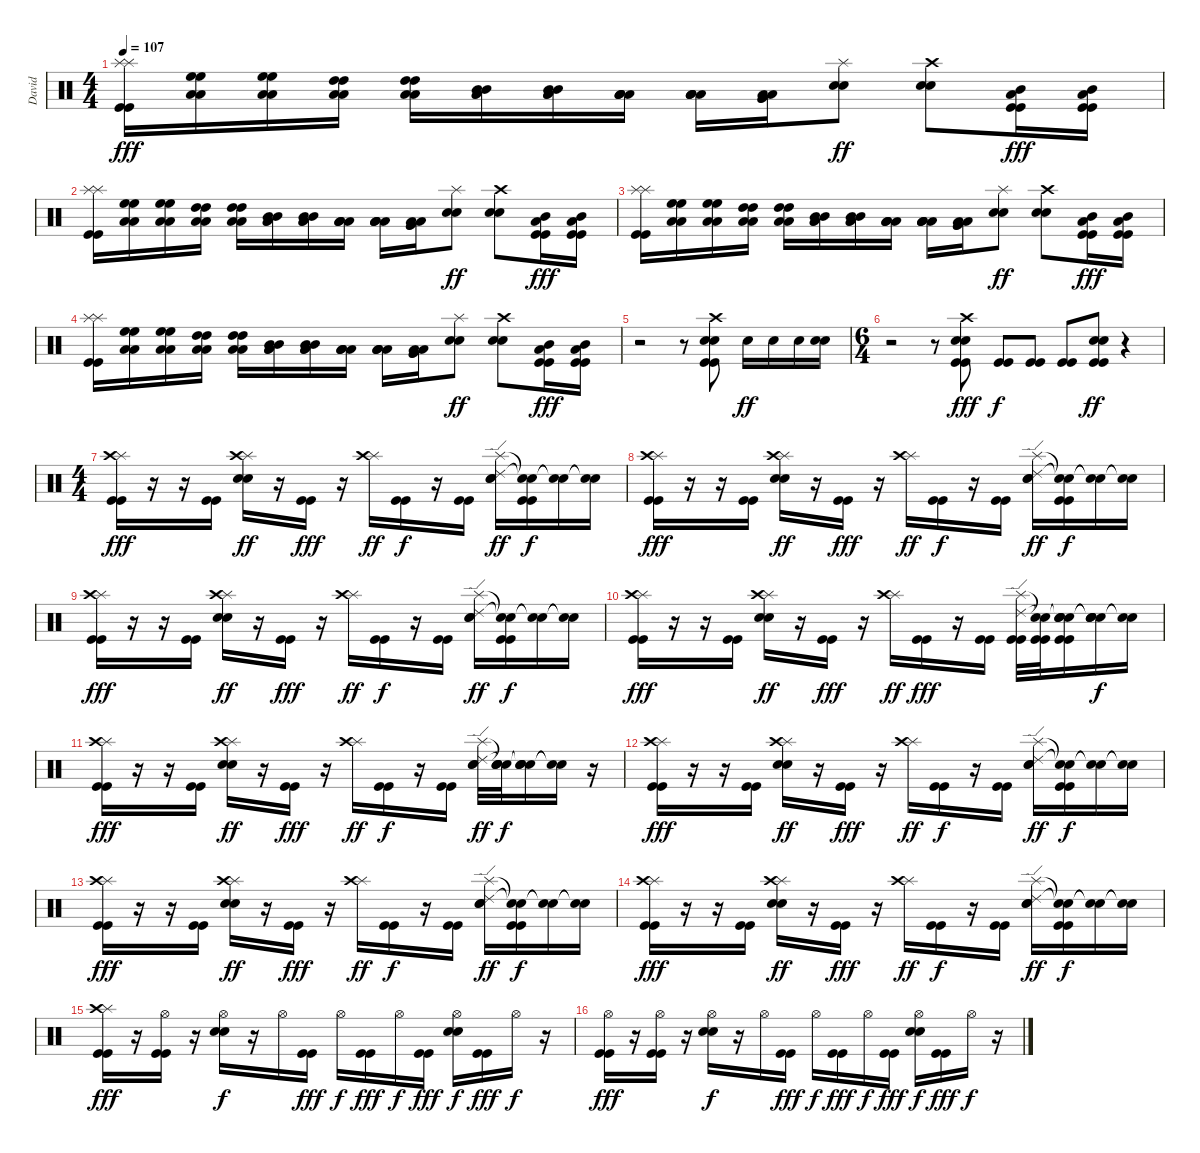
\track ("David" "David") {instrument percussion}
\staff {score}
\articulation defaults
\ts (4 4)
\tempo 107
\clef neutral
\ks c
("Splash (hit)" "Splash (hit)" "Kick (hit)" "Kick (hit)").16{dy fff} ("High Floor Tom (hit)" "High Floor Tom (hit)" "Low Floor Tom (hit)" "Low Floor Tom (hit)").16 ("High Floor Tom (hit)" "High Floor Tom (hit)" "Low Floor Tom (hit)" "Low Floor Tom (hit)").16 ("High Tom (hit)" "High Tom (hit)" "Low Floor Tom (hit)" "Low Floor Tom (hit)").16 ("High Tom (hit)" "High Tom (hit)" "Low Floor Tom (hit)" "Low Floor Tom (hit)").16 ("Mid Tom (hit)" "Mid Tom (hit)" "Low Floor Tom (hit)" "Low Floor Tom (hit)").16 ("Mid Tom (hit)" "Mid Tom (hit)" "Low Floor Tom (hit)" "Low Floor Tom (hit)").16 ("Low Tom (hit)" "Low Tom (hit)" "Low Floor Tom (hit)" "Low Floor Tom (hit)").16 ("Low Tom (hit)" "Low Tom (hit)" "Low Floor Tom (hit)" "Low Floor Tom (hit)").16 ("Very Low Tom (hit)" "Very Low Tom (hit)" "Low Floor Tom (hit)" "Low Floor Tom (hit)").16 ("Splash (hit)" "Electric Snare (hit)" "Electric Snare (hit)").8{dy ff} ("Crash high (hit)" "Electric Snare (hit)" "Electric Snare (hit)").8 ("Mid Tom (hit)" "Low Floor Tom (hit)" "Kick (hit)" "Kick (hit)").16{dy fff} ("Mid Tom (hit)" "Low Floor Tom (hit)" "Kick (hit)" "Kick (hit)").16 |
("Splash (hit)" "Splash (hit)" "Kick (hit)" "Kick (hit)").16 ("High Floor Tom (hit)" "High Floor Tom (hit)" "Low Floor Tom (hit)" "Low Floor Tom (hit)").16 ("High Floor Tom (hit)" "High Floor Tom (hit)" "Low Floor Tom (hit)" "Low Floor Tom (hit)").16 ("High Tom (hit)" "High Tom (hit)" "Low Floor Tom (hit)" "Low Floor Tom (hit)").16 ("High Tom (hit)" "High Tom (hit)" "Low Floor Tom (hit)" "Low Floor Tom (hit)").16 ("Mid Tom (hit)" "Mid Tom (hit)" "Low Floor Tom (hit)" "Low Floor Tom (hit)").16 ("Mid Tom (hit)" "Mid Tom (hit)" "Low Floor Tom (hit)" "Low Floor Tom (hit)").16 ("Low Tom (hit)" "Low Tom (hit)" "Low Floor Tom (hit)" "Low Floor Tom (hit)").16 ("Low Tom (hit)" "Low Tom (hit)" "Low Floor Tom (hit)" "Low Floor Tom (hit)").16 ("Very Low Tom (hit)" "Very Low Tom (hit)" "Low Floor Tom (hit)" "Low Floor Tom (hit)").16 ("Splash (hit)" "Electric Snare (hit)" "Electric Snare (hit)").8{dy ff} ("Crash high (hit)" "Electric Snare (hit)" "Electric Snare (hit)").8 ("Mid Tom (hit)" "Low Floor Tom (hit)" "Kick (hit)" "Kick (hit)").16{dy fff} ("Mid Tom (hit)" "Low Floor Tom (hit)" "Kick (hit)" "Kick (hit)").16 |
("Splash (hit)" "Splash (hit)" "Kick (hit)" "Kick (hit)").16 ("High Floor Tom (hit)" "High Floor Tom (hit)" "Low Floor Tom (hit)" "Low Floor Tom (hit)").16 ("High Floor Tom (hit)" "High Floor Tom (hit)" "Low Floor Tom (hit)" "Low Floor Tom (hit)").16 ("High Tom (hit)" "High Tom (hit)" "Low Floor Tom (hit)" "Low Floor Tom (hit)").16 ("High Tom (hit)" "High Tom (hit)" "Low Floor Tom (hit)" "Low Floor Tom (hit)").16 ("Mid Tom (hit)" "Mid Tom (hit)" "Low Floor Tom (hit)" "Low Floor Tom (hit)").16 ("Mid Tom (hit)" "Mid Tom (hit)" "Low Floor Tom (hit)" "Low Floor Tom (hit)").16 ("Low Tom (hit)" "Low Tom (hit)" "Low Floor Tom (hit)" "Low Floor Tom (hit)").16 ("Low Tom (hit)" "Low Tom (hit)" "Low Floor Tom (hit)" "Low Floor Tom (hit)").16 ("Very Low Tom (hit)" "Very Low Tom (hit)" "Low Floor Tom (hit)" "Low Floor Tom (hit)").16 ("Splash (hit)" "Electric Snare (hit)" "Electric Snare (hit)").8{dy ff} ("Crash high (hit)" "Electric Snare (hit)" "Electric Snare (hit)").8 ("Mid Tom (hit)" "Low Floor Tom (hit)" "Kick (hit)" "Kick (hit)").16{dy fff} ("Mid Tom (hit)" "Low Floor Tom (hit)" "Kick (hit)" "Kick (hit)").16 |
("Splash (hit)" "Splash (hit)" "Kick (hit)" "Kick (hit)").16 ("High Floor Tom (hit)" "High Floor Tom (hit)" "Low Floor Tom (hit)" "Low Floor Tom (hit)").16 ("High Floor Tom (hit)" "High Floor Tom (hit)" "Low Floor Tom (hit)" "Low Floor Tom (hit)").16 ("High Tom (hit)" "High Tom (hit)" "Low Floor Tom (hit)" "Low Floor Tom (hit)").16 ("High Tom (hit)" "High Tom (hit)" "Low Floor Tom (hit)" "Low Floor Tom (hit)").16 ("Mid Tom (hit)" "Mid Tom (hit)" "Low Floor Tom (hit)" "Low Floor Tom (hit)").16 ("Mid Tom (hit)" "Mid Tom (hit)" "Low Floor Tom (hit)" "Low Floor Tom (hit)").16 ("Low Tom (hit)" "Low Tom (hit)" "Low Floor Tom (hit)" "Low Floor Tom (hit)").16 ("Low Tom (hit)" "Low Tom (hit)" "Low Floor Tom (hit)" "Low Floor Tom (hit)").16 ("Very Low Tom (hit)" "Very Low Tom (hit)" "Low Floor Tom (hit)" "Low Floor Tom (hit)").16 ("Splash (hit)" "Electric Snare (hit)" "Electric Snare (hit)").8{dy ff} ("Crash high (hit)" "Electric Snare (hit)" "Electric Snare (hit)").8 ("Mid Tom (hit)" "Low Floor Tom (hit)" "Kick (hit)" "Kick (hit)").16{dy fff} ("Mid Tom (hit)" "Low Floor Tom (hit)" "Kick (hit)" "Kick (hit)").16 |
r.2 r.8 ("Crash high (hit)" "Electric Snare (hit)" "Electric Snare (hit)" "Kick (hit)" "Kick (hit)").8 "Electric Snare (hit)".16{dy ff} "Electric Snare (hit)".16 "Electric Snare (hit)".16 ("Electric Snare (hit)" "Electric Snare (hit)").16 |
\ts (6 4)
r.2 r.8 ("Crash high (hit)" "Electric Snare (hit)" "Electric Snare (hit)" "Kick (hit)" "Kick (hit)").8{dy fff} ("Kick (hit)" "Kick (hit)").8{dy f} ("Kick (hit)" "Kick (hit)").8 ("Kick (hit)" "Kick (hit)").8 ("Electric Snare (hit)" "Electric Snare (hit)" "Kick (hit)" "Kick (hit)").8{dy ff} r.4 |
\ts (4 4)
("Splash (hit)" "Crash high (hit)" "Kick (hit)" "Kick (hit)").16{dy fff} r.16 r.16 ("Kick (hit)" "Kick (hit)").16 ("Splash (hit)" "Crash high (hit)" "Electric Snare (hit)" "Electric Snare (hit)").16{dy ff} r.16 ("Kick (hit)" "Kick (hit)").16{dy fff} r.16 ("Splash (hit)" "Crash high (hit)").16{dy ff} ("Kick (hit)" "Kick (hit)").16{dy f} r.16 ("Kick (hit)" "Kick (hit)").16 ("Splash (hit)" "Ride (edge) 2" "Electric Snare (hit)" "Electric Snare (hit)").16{dy ff} ("Snare (hit)"{t} "Snare (hit)"{t} "Kick (hit)" "Kick (hit)").16{dy f} ("Snare (hit)"{t} "Snare (hit)"{t}).16 ("Snare (hit)"{t} "Snare (hit)"{t}).16 |
("Splash (hit)" "Crash high (hit)" "Kick (hit)" "Kick (hit)").16{dy fff} r.16 r.16 ("Kick (hit)" "Kick (hit)").16 ("Splash (hit)" "Crash high (hit)" "Electric Snare (hit)" "Electric Snare (hit)").16{dy ff} r.16 ("Kick (hit)" "Kick (hit)").16{dy fff} r.16 ("Splash (hit)" "Crash high (hit)").16{dy ff} ("Kick (hit)" "Kick (hit)").16{dy f} r.16 ("Kick (hit)" "Kick (hit)").16 ("Splash (hit)" "Ride (edge) 2" "Electric Snare (hit)" "Electric Snare (hit)").16{dy ff} ("Snare (hit)"{t} "Snare (hit)"{t} "Kick (hit)" "Kick (hit)").16{dy f} ("Snare (hit)"{t} "Snare (hit)"{t}).16 ("Snare (hit)"{t} "Snare (hit)"{t}).16 |
("Splash (hit)" "Crash high (hit)" "Kick (hit)" "Kick (hit)").16{dy fff} r.16 r.16 ("Kick (hit)" "Kick (hit)").16 ("Splash (hit)" "Crash high (hit)" "Electric Snare (hit)" "Electric Snare (hit)").16{dy ff} r.16 ("Kick (hit)" "Kick (hit)").16{dy fff} r.16 ("Splash (hit)" "Crash high (hit)").16{dy ff} ("Kick (hit)" "Kick (hit)").16{dy f} r.16 ("Kick (hit)" "Kick (hit)").16 ("Splash (hit)" "Ride (edge) 2" "Electric Snare (hit)" "Electric Snare (hit)").16{dy ff} ("Snare (hit)"{t} "Snare (hit)"{t} "Kick (hit)" "Kick (hit)").16{dy f} ("Snare (hit)"{t} "Snare (hit)"{t}).16 ("Snare (hit)"{t} "Snare (hit)"{t}).16 |
("Splash (hit)" "Crash high (hit)" "Kick (hit)" "Kick (hit)").16{dy fff} r.16 r.16 ("Kick (hit)" "Kick (hit)").16 ("Splash (hit)" "Crash high (hit)" "Electric Snare (hit)" "Electric Snare (hit)").16{dy ff} r.16 ("Kick (hit)" "Kick (hit)").16{dy fff} r.16 ("Splash (hit)" "Crash high (hit)").16{dy ff} ("Kick (hit)" "Kick (hit)").16{dy fff} r.16 ("Kick (hit)" "Kick (hit)").16 ("Splash (hit)" "Ride (edge) 2" "Kick (hit)" "Kick (hit)").32 ("Snare (hit)"{t} "Snare (hit)"{t} "Kick (hit)" "Kick (hit)").32 ("Snare (hit)"{t} "Snare (hit)"{t} "Electric Snare (hit)" "Electric Snare (hit)" "Kick (hit)" "Kick (hit)").16 ("Snare (hit)"{t} "Snare (hit)"{t} "Electric Snare (hit)" "Electric Snare (hit)").16{dy f} ("Snare (hit)"{t} "Snare (hit)"{t}).16 |
("Splash (hit)" "Crash high (hit)" "Kick (hit)" "Kick (hit)").16{dy fff} r.16 r.16 ("Kick (hit)" "Kick (hit)").16 ("Splash (hit)" "Crash high (hit)" "Electric Snare (hit)" "Electric Snare (hit)").16{dy ff} r.16 ("Kick (hit)" "Kick (hit)").16{dy fff} r.16 ("Splash (hit)" "Crash high (hit)").16{dy ff} ("Kick (hit)" "Kick (hit)").16{dy f} r.16 ("Kick (hit)" "Kick (hit)").16 ("Splash (hit)" "Ride (edge) 2" "Electric Snare (hit)" "Electric Snare (hit)").32{dy ff} ("Snare (hit)"{t} "Snare (hit)"{t} "Electric Snare (hit)" "Electric Snare (hit)").32{dy f} ("Snare (hit)"{t} "Snare (hit)"{t} "Electric Snare (hit)" "Electric Snare (hit)").16 ("Snare (hit)"{t} "Snare (hit)"{t}).16 r.16 |
("Splash (hit)" "Crash high (hit)" "Kick (hit)" "Kick (hit)").16{dy fff} r.16 r.16 ("Kick (hit)" "Kick (hit)").16 ("Splash (hit)" "Crash high (hit)" "Electric Snare (hit)" "Electric Snare (hit)").16{dy ff} r.16 ("Kick (hit)" "Kick (hit)").16{dy fff} r.16 ("Splash (hit)" "Crash high (hit)").16{dy ff} ("Kick (hit)" "Kick (hit)").16{dy f} r.16 ("Kick (hit)" "Kick (hit)").16 ("Splash (hit)" "Ride (edge) 2" "Electric Snare (hit)" "Electric Snare (hit)").16{dy ff} ("Snare (hit)"{t} "Snare (hit)"{t} "Kick (hit)" "Kick (hit)").16{dy f} ("Snare (hit)"{t} "Snare (hit)"{t}).16 ("Snare (hit)"{t} "Snare (hit)"{t}).16 |
("Splash (hit)" "Crash high (hit)" "Kick (hit)" "Kick (hit)").16{dy fff} r.16 r.16 ("Kick (hit)" "Kick (hit)").16 ("Splash (hit)" "Crash high (hit)" "Electric Snare (hit)" "Electric Snare (hit)").16{dy ff} r.16 ("Kick (hit)" "Kick (hit)").16{dy fff} r.16 ("Splash (hit)" "Crash high (hit)").16{dy ff} ("Kick (hit)" "Kick (hit)").16{dy f} r.16 ("Kick (hit)" "Kick (hit)").16 ("Splash (hit)" "Ride (edge) 2" "Electric Snare (hit)" "Electric Snare (hit)").16{dy ff} ("Snare (hit)"{t} "Snare (hit)"{t} "Kick (hit)" "Kick (hit)").16{dy f} ("Snare (hit)"{t} "Snare (hit)"{t}).16 ("Snare (hit)"{t} "Snare (hit)"{t}).16 |
("Splash (hit)" "Crash high (hit)" "Kick (hit)" "Kick (hit)").16{dy fff} r.16 r.16 ("Kick (hit)" "Kick (hit)").16 ("Splash (hit)" "Crash high (hit)" "Electric Snare (hit)" "Electric Snare (hit)").16{dy ff} r.16 ("Kick (hit)" "Kick (hit)").16{dy fff} r.16 ("Splash (hit)" "Crash high (hit)").16{dy ff} ("Kick (hit)" "Kick (hit)").16{dy f} r.16 ("Kick (hit)" "Kick (hit)").16 ("Splash (hit)" "Ride (edge) 2" "Electric Snare (hit)" "Electric Snare (hit)").16{dy ff} ("Snare (hit)"{t} "Snare (hit)"{t} "Kick (hit)" "Kick (hit)").16{dy f} ("Snare (hit)"{t} "Snare (hit)"{t}).16 ("Snare (hit)"{t} "Snare (hit)"{t}).16 |
("Splash (hit)" "Crash high (hit)" "Kick (hit)" "Kick (hit)").16{dy fff} r.16 ("Hi-Hat (open)" "Kick (hit)" "Kick (hit)").16 r.16 ("Hi-Hat (open)" "Electric Snare (hit)" "Electric Snare (hit)").16{dy f} r.16 "Hi-Hat (open)".16 ("Kick (hit)" "Kick (hit)").16{dy fff} "Hi-Hat (open)".16{dy f} ("Kick (hit)" "Kick (hit)").16{dy fff} "Hi-Hat (open)".16{dy f} ("Kick (hit)" "Kick (hit)").16{dy fff} ("Hi-Hat (open)" "Electric Snare (hit)" "Electric Snare (hit)").16{dy f} ("Kick (hit)" "Kick (hit)").16{dy fff} "Hi-Hat (open)".16{dy f} r.16 |
("Hi-Hat (open)" "Kick (hit)" "Kick (hit)").16{dy fff} r.16 ("Hi-Hat (open)" "Kick (hit)" "Kick (hit)").16 r.16 ("Hi-Hat (open)" "Electric Snare (hit)" "Electric Snare (hit)").16{dy f} r.16 "Hi-Hat (open)".16 ("Kick (hit)" "Kick (hit)").16{dy fff} "Hi-Hat (open)".16{dy f} ("Kick (hit)" "Kick (hit)").16{dy fff} "Hi-Hat (open)".16{dy f} ("Kick (hit)" "Kick (hit)").16{dy fff} ("Hi-Hat (open)" "Electric Snare (hit)" "Electric Snare (hit)").16{dy f} ("Kick (hit)" "Kick (hit)").16{dy fff} "Hi-Hat (open)".16{dy f} r.16
